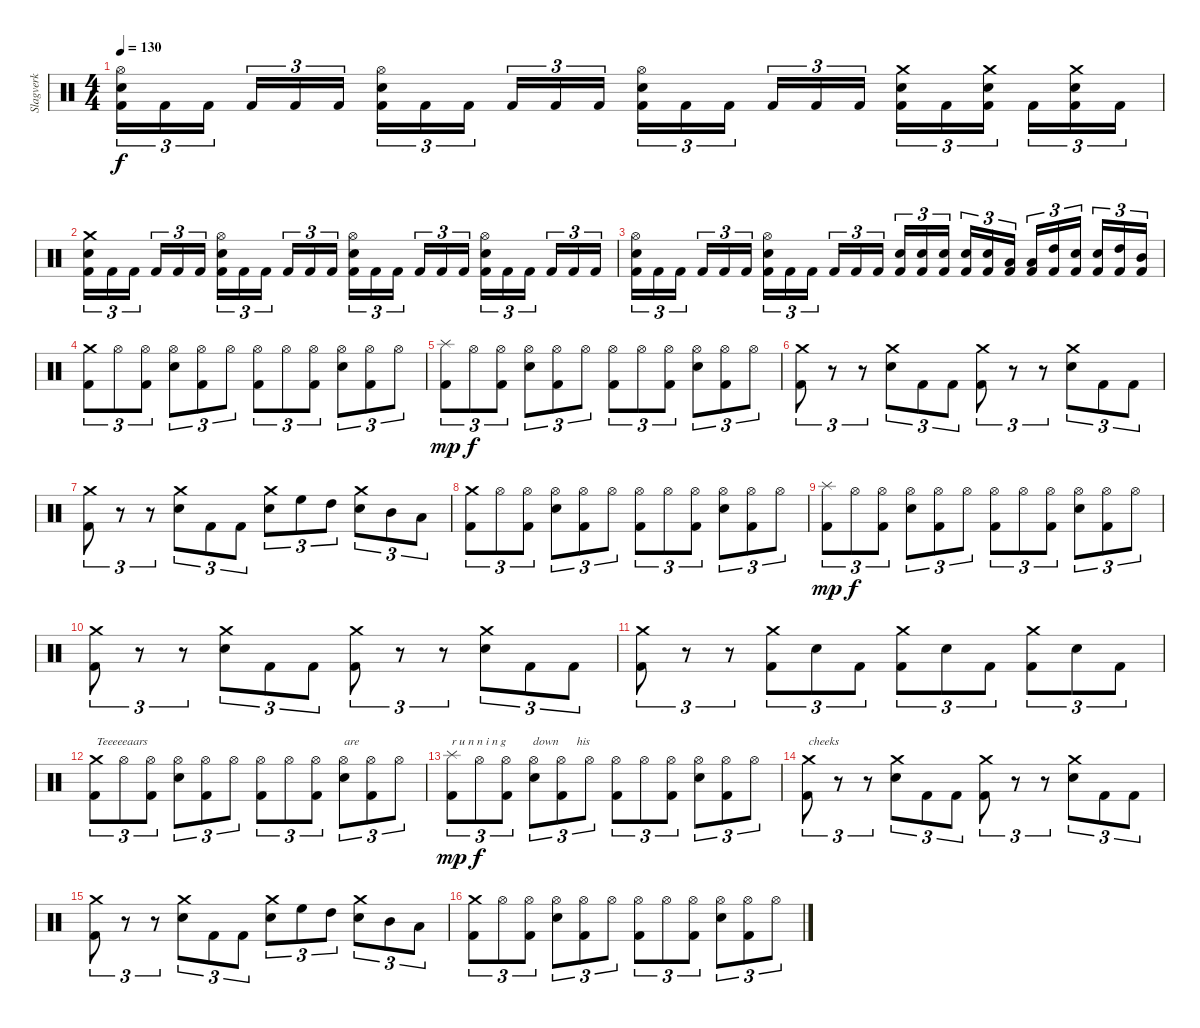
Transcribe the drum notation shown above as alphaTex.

\track ("Slagverk" "Slagverk") {instrument percussion}
\staff {score}
\articulation defaults
\ts (4 4)
\tempo 130
\clef neutral
\ks c
("Kick (hit) 2" "Electric Snare (hit)" "Hi-Hat (open)").16{tu (3 2) dy f} "Kick (hit) 2".16{tu (3 2)} "Kick (hit) 2".16{tu (3 2)} "Kick (hit) 2".16{tu (3 2)} "Kick (hit) 2".16{tu (3 2)} "Kick (hit) 2".16{tu (3 2)} ("Kick (hit) 2" "Electric Snare (hit)" "Hi-Hat (open)").16{tu (3 2)} "Kick (hit) 2".16{tu (3 2)} "Kick (hit) 2".16{tu (3 2)} "Kick (hit) 2".16{tu (3 2)} "Kick (hit) 2".16{tu (3 2)} "Kick (hit) 2".16{tu (3 2)} ("Kick (hit) 2" "Electric Snare (hit)" "Hi-Hat (open)").16{tu (3 2)} "Kick (hit) 2".16{tu (3 2)} "Kick (hit) 2".16{tu (3 2)} "Kick (hit) 2".16{tu (3 2)} "Kick (hit) 2".16{tu (3 2)} "Kick (hit) 2".16{tu (3 2)} ("Kick (hit) 2" "Electric Snare (hit)" "Crash medium (hit)").16{tu (3 2)} "Kick (hit) 2".16{tu (3 2)} ("Kick (hit) 2" "Electric Snare (hit)" "Crash medium (hit)").16{tu (3 2)} "Kick (hit) 2".16{tu (3 2)} ("Kick (hit) 2" "Electric Snare (hit)" "Crash medium (hit)").16{tu (3 2)} "Kick (hit) 2".16{tu (3 2)} |
("Kick (hit) 2" "Electric Snare (hit)" "Crash medium (hit)").16{tu (3 2)} "Kick (hit) 2".16{tu (3 2)} "Kick (hit) 2".16{tu (3 2)} "Kick (hit) 2".16{tu (3 2)} "Kick (hit) 2".16{tu (3 2)} "Kick (hit) 2".16{tu (3 2)} ("Kick (hit) 2" "Electric Snare (hit)" "Hi-Hat (open)").16{tu (3 2)} "Kick (hit) 2".16{tu (3 2)} "Kick (hit) 2".16{tu (3 2)} "Kick (hit) 2".16{tu (3 2)} "Kick (hit) 2".16{tu (3 2)} "Kick (hit) 2".16{tu (3 2)} ("Kick (hit) 2" "Electric Snare (hit)" "Hi-Hat (open)").16{tu (3 2)} "Kick (hit) 2".16{tu (3 2)} "Kick (hit) 2".16{tu (3 2)} "Kick (hit) 2".16{tu (3 2)} "Kick (hit) 2".16{tu (3 2)} "Kick (hit) 2".16{tu (3 2)} ("Kick (hit) 2" "Electric Snare (hit)" "Hi-Hat (open)").16{tu (3 2)} "Kick (hit) 2".16{tu (3 2)} "Kick (hit) 2".16{tu (3 2)} "Kick (hit) 2".16{tu (3 2)} "Kick (hit) 2".16{tu (3 2)} "Kick (hit) 2".16{tu (3 2)} |
("Kick (hit) 2" "Electric Snare (hit)" "Hi-Hat (open)").16{tu (3 2)} "Kick (hit) 2".16{tu (3 2)} "Kick (hit) 2".16{tu (3 2)} "Kick (hit) 2".16{tu (3 2)} "Kick (hit) 2".16{tu (3 2)} "Kick (hit) 2".16{tu (3 2)} ("Kick (hit) 2" "Electric Snare (hit)" "Hi-Hat (open)").16{tu (3 2)} "Kick (hit) 2".16{tu (3 2)} "Kick (hit) 2".16{tu (3 2)} "Kick (hit) 2".16{tu (3 2)} "Kick (hit) 2".16{tu (3 2)} "Kick (hit) 2".16{tu (3 2)} ("Kick (hit) 2" "Electric Snare (hit)").16{tu (3 2)} ("Kick (hit) 2" "Electric Snare (hit)").16{tu (3 2)} ("Kick (hit) 2" "Electric Snare (hit)").16{tu (3 2)} ("Kick (hit) 2" "Electric Snare (hit)").16{tu (3 2)} ("Kick (hit) 2" "Electric Snare (hit)").16{tu (3 2)} ("Kick (hit) 2" "Low Tom (hit)").16{tu (3 2)} ("Kick (hit) 2" "Low Tom (hit)").16{tu (3 2)} ("Kick (hit) 2" "High Tom (hit)").16{tu (3 2)} ("Kick (hit) 2" "Electric Snare (hit)").16{tu (3 2)} ("Kick (hit) 2" "Electric Snare (hit)").16{tu (3 2)} ("Kick (hit) 2" "High Tom (hit)").16{tu (3 2)} ("Kick (hit) 2" "Mid Tom (hit)").16{tu (3 2)} |
("Kick (hit) 2" "Crash medium (hit)").8{tu (3 2)} "Hi-Hat (open)".8{tu (3 2)} ("Kick (hit) 2" "Hi-Hat (open)").8{tu (3 2)} ("Electric Snare (hit)" "Hi-Hat (open)").8{tu (3 2)} ("Kick (hit) 2" "Hi-Hat (open)").8{tu (3 2)} "Hi-Hat (open)".8{tu (3 2)} ("Kick (hit) 2" "Hi-Hat (open)").8{tu (3 2)} "Hi-Hat (open)".8{tu (3 2)} ("Kick (hit) 2" "Hi-Hat (open)").8{tu (3 2)} ("Electric Snare (hit)" "Hi-Hat (open)").8{tu (3 2)} ("Kick (hit) 2" "Hi-Hat (open)").8{tu (3 2)} "Hi-Hat (open)".8{tu (3 2)} |
("Kick (hit) 2" "Splash (hit)").8{tu (3 2) dy mp} "Hi-Hat (open)".8{tu (3 2) dy f} ("Kick (hit) 2" "Hi-Hat (open)").8{tu (3 2)} ("Electric Snare (hit)" "Hi-Hat (open)").8{tu (3 2)} ("Kick (hit) 2" "Hi-Hat (open)").8{tu (3 2)} "Hi-Hat (open)".8{tu (3 2)} ("Kick (hit) 2" "Hi-Hat (open)").8{tu (3 2)} "Hi-Hat (open)".8{tu (3 2)} ("Kick (hit) 2" "Hi-Hat (open)").8{tu (3 2)} ("Electric Snare (hit)" "Hi-Hat (open)").8{tu (3 2)} ("Kick (hit) 2" "Hi-Hat (open)").8{tu (3 2)} "Hi-Hat (open)".8{tu (3 2)} |
("Kick (hit) 2" "Crash medium (hit)").8{tu (3 2)} r.8{tu (3 2)} r.8{tu (3 2)} ("Electric Snare (hit)" "Crash medium (hit)").8{tu (3 2)} "Kick (hit) 2".8{tu (3 2)} "Kick (hit) 2".8{tu (3 2)} ("Kick (hit) 2" "Crash medium (hit)").8{tu (3 2)} r.8{tu (3 2)} r.8{tu (3 2)} ("Electric Snare (hit)" "Crash medium (hit)").8{tu (3 2)} "Kick (hit) 2".8{tu (3 2)} "Kick (hit) 2".8{tu (3 2)} |
("Kick (hit) 2" "Crash medium (hit)").8{tu (3 2)} r.8{tu (3 2)} r.8{tu (3 2)} ("Electric Snare (hit)" "Crash medium (hit)").8{tu (3 2)} "Kick (hit) 2".8{tu (3 2)} "Kick (hit) 2".8{tu (3 2)} ("Electric Snare (hit)" "Crash medium (hit)").8{tu (3 2)} "High Floor Tom (hit)".8{tu (3 2)} "High Tom (hit)".8{tu (3 2)} ("Electric Snare (hit)" "Crash medium (hit)").8{tu (3 2)} "Mid Tom (hit)".8{tu (3 2)} "Low Tom (hit)".8{tu (3 2)} |
("Kick (hit) 2" "Crash medium (hit)").8{tu (3 2)} "Hi-Hat (open)".8{tu (3 2)} ("Kick (hit) 2" "Hi-Hat (open)").8{tu (3 2)} ("Electric Snare (hit)" "Hi-Hat (open)").8{tu (3 2)} ("Kick (hit) 2" "Hi-Hat (open)").8{tu (3 2)} "Hi-Hat (open)".8{tu (3 2)} ("Kick (hit) 2" "Hi-Hat (open)").8{tu (3 2)} "Hi-Hat (open)".8{tu (3 2)} ("Kick (hit) 2" "Hi-Hat (open)").8{tu (3 2)} ("Electric Snare (hit)" "Hi-Hat (open)").8{tu (3 2)} ("Kick (hit) 2" "Hi-Hat (open)").8{tu (3 2)} "Hi-Hat (open)".8{tu (3 2)} |
("Kick (hit) 2" "Splash (hit)").8{tu (3 2) dy mp} "Hi-Hat (open)".8{tu (3 2) dy f} ("Kick (hit) 2" "Hi-Hat (open)").8{tu (3 2)} ("Electric Snare (hit)" "Hi-Hat (open)").8{tu (3 2)} ("Kick (hit) 2" "Hi-Hat (open)").8{tu (3 2)} "Hi-Hat (open)".8{tu (3 2)} ("Kick (hit) 2" "Hi-Hat (open)").8{tu (3 2)} "Hi-Hat (open)".8{tu (3 2)} ("Kick (hit) 2" "Hi-Hat (open)").8{tu (3 2)} ("Electric Snare (hit)" "Hi-Hat (open)").8{tu (3 2)} ("Kick (hit) 2" "Hi-Hat (open)").8{tu (3 2)} "Hi-Hat (open)".8{tu (3 2)} |
("Kick (hit) 2" "Crash medium (hit)").8{tu (3 2)} r.8{tu (3 2)} r.8{tu (3 2)} ("Electric Snare (hit)" "Crash medium (hit)").8{tu (3 2)} "Kick (hit) 2".8{tu (3 2)} "Kick (hit) 2".8{tu (3 2)} ("Kick (hit) 2" "Crash medium (hit)").8{tu (3 2)} r.8{tu (3 2)} r.8{tu (3 2)} ("Electric Snare (hit)" "Crash medium (hit)").8{tu (3 2)} "Kick (hit) 2".8{tu (3 2)} "Kick (hit) 2".8{tu (3 2)} |
("Kick (hit) 2" "Crash medium (hit)").8{tu (3 2)} r.8{tu (3 2)} r.8{tu (3 2)} ("Kick (hit) 2" "Crash medium (hit)").8{tu (3 2)} "Electric Snare (hit)".8{tu (3 2)} "Kick (hit) 2".8{tu (3 2)} ("Kick (hit) 2" "Crash medium (hit)").8{tu (3 2)} "Electric Snare (hit)".8{tu (3 2)} "Kick (hit) 2".8{tu (3 2)} ("Kick (hit) 2" "Crash medium (hit)").8{tu (3 2)} "Electric Snare (hit)".8{tu (3 2)} "Kick (hit) 2".8{tu (3 2)} |
("Kick (hit) 2" "Crash medium (hit)").8{tu (3 2) txt "Teeeeeaars"} "Hi-Hat (open)".8{tu (3 2)} ("Kick (hit) 2" "Hi-Hat (open)").8{tu (3 2)} ("Electric Snare (hit)" "Hi-Hat (open)").8{tu (3 2)} ("Kick (hit) 2" "Hi-Hat (open)").8{tu (3 2)} "Hi-Hat (open)".8{tu (3 2)} ("Kick (hit) 2" "Hi-Hat (open)").8{tu (3 2)} "Hi-Hat (open)".8{tu (3 2)} ("Kick (hit) 2" "Hi-Hat (open)").8{tu (3 2)} ("Electric Snare (hit)" "Hi-Hat (open)").8{tu (3 2) txt "are"} ("Kick (hit) 2" "Hi-Hat (open)").8{tu (3 2)} "Hi-Hat (open)".8{tu (3 2)} |
("Kick (hit) 2" "Splash (hit)").8{tu (3 2) txt "r u n n i n g         down      his" dy mp} "Hi-Hat (open)".8{tu (3 2) dy f} ("Kick (hit) 2" "Hi-Hat (open)").8{tu (3 2)} ("Electric Snare (hit)" "Hi-Hat (open)").8{tu (3 2)} ("Kick (hit) 2" "Hi-Hat (open)").8{tu (3 2)} "Hi-Hat (open)".8{tu (3 2)} ("Kick (hit) 2" "Hi-Hat (open)").8{tu (3 2)} "Hi-Hat (open)".8{tu (3 2)} ("Kick (hit) 2" "Hi-Hat (open)").8{tu (3 2)} ("Electric Snare (hit)" "Hi-Hat (open)").8{tu (3 2)} ("Kick (hit) 2" "Hi-Hat (open)").8{tu (3 2)} "Hi-Hat (open)".8{tu (3 2)} |
("Kick (hit) 2" "Crash medium (hit)").8{tu (3 2) txt "cheeks"} r.8{tu (3 2)} r.8{tu (3 2)} ("Electric Snare (hit)" "Crash medium (hit)").8{tu (3 2)} "Kick (hit) 2".8{tu (3 2)} "Kick (hit) 2".8{tu (3 2)} ("Kick (hit) 2" "Crash medium (hit)").8{tu (3 2)} r.8{tu (3 2)} r.8{tu (3 2)} ("Electric Snare (hit)" "Crash medium (hit)").8{tu (3 2)} "Kick (hit) 2".8{tu (3 2)} "Kick (hit) 2".8{tu (3 2)} |
("Kick (hit) 2" "Crash medium (hit)").8{tu (3 2)} r.8{tu (3 2)} r.8{tu (3 2)} ("Electric Snare (hit)" "Crash medium (hit)").8{tu (3 2)} "Kick (hit) 2".8{tu (3 2)} "Kick (hit) 2".8{tu (3 2)} ("Electric Snare (hit)" "Crash medium (hit)").8{tu (3 2)} "High Floor Tom (hit)".8{tu (3 2)} "High Tom (hit)".8{tu (3 2)} ("Electric Snare (hit)" "Crash medium (hit)").8{tu (3 2)} "Mid Tom (hit)".8{tu (3 2)} "Low Tom (hit)".8{tu (3 2)} |
("Kick (hit) 2" "Crash medium (hit)").8{tu (3 2)} "Hi-Hat (open)".8{tu (3 2)} ("Kick (hit) 2" "Hi-Hat (open)").8{tu (3 2)} ("Electric Snare (hit)" "Hi-Hat (open)").8{tu (3 2)} ("Kick (hit) 2" "Hi-Hat (open)").8{tu (3 2)} "Hi-Hat (open)".8{tu (3 2)} ("Kick (hit) 2" "Hi-Hat (open)").8{tu (3 2)} "Hi-Hat (open)".8{tu (3 2)} ("Kick (hit) 2" "Hi-Hat (open)").8{tu (3 2)} ("Electric Snare (hit)" "Hi-Hat (open)").8{tu (3 2)} ("Kick (hit) 2" "Hi-Hat (open)").8{tu (3 2)} "Hi-Hat (open)".8{tu (3 2)}
